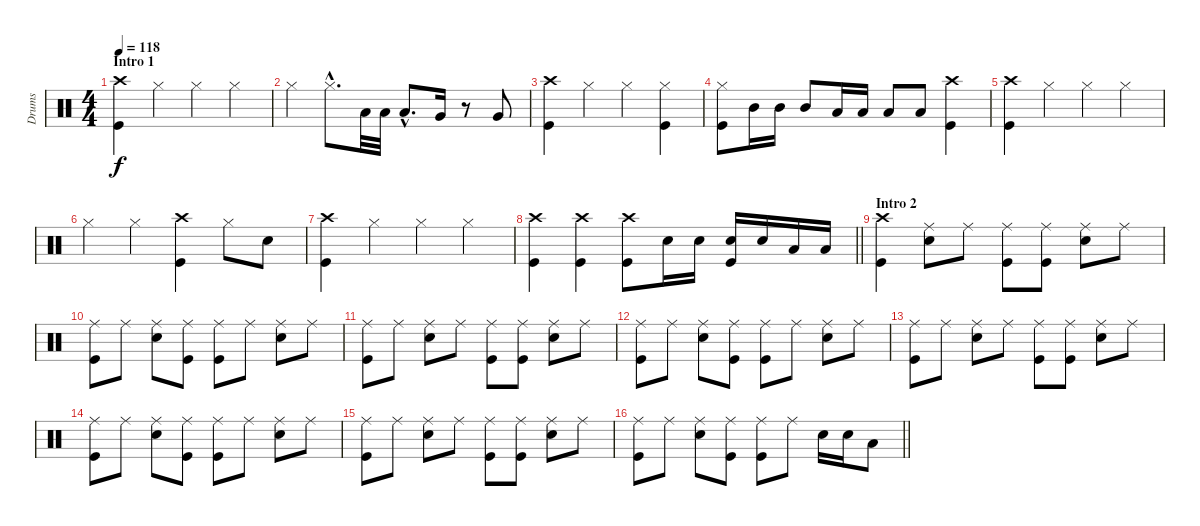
\track ("Drums" "Drums") {instrument percussion}
\staff {score}
\articulation defaults
\ts (4 4)
\section ("" "Intro 1")
\tempo 118
\clef neutral
\ks c
("Crash high (hit)" "Kick (hit)").4{dy f} "Hi-Hat (closed)".4 "Hi-Hat (closed)".4 "Hi-Hat (closed)".4 |
"Hi-Hat (closed)".4 "Hi-Hat (closed)"{hac}.8{d} "Low Tom (hit)".32 "Low Tom (hit)".32 "Low Tom (hit)"{hac}.8{d} "Very Low Tom (hit)".16 r.8 "Very Low Tom (hit)".8 |
("Crash high (hit)" "Kick (hit)").4 "Hi-Hat (closed)".4 "Hi-Hat (closed)".4 ("Hi-Hat (closed)" "Kick (hit)").4 |
("Hi-Hat (closed)" "Kick (hit)").8 "Mid Tom (hit)".16 "Mid Tom (hit)".16 "Mid Tom (hit)".8 "Low Tom (hit)".16 "Low Tom (hit)".16 "Low Tom (hit)".8 "Low Tom (hit)".8 ("Crash high (hit)" "Kick (hit)").4 |
("Crash high (hit)" "Kick (hit)").4 "Hi-Hat (closed)".4 "Hi-Hat (closed)".4 "Hi-Hat (closed)".4 |
"Hi-Hat (closed)".4 "Hi-Hat (closed)".4 ("Crash high (hit)" "Kick (hit)").4 "Hi-Hat (closed)".8 "Electric Snare (hit)".8 |
("Crash high (hit)" "Kick (hit)").4 "Hi-Hat (closed)".4 "Hi-Hat (closed)".4 "Hi-Hat (closed)".4 |
\barLineRight lightlight
("Crash high (hit)" "Kick (hit)").4 ("Crash high (hit)" "Kick (hit)").4 ("Crash high (hit)" "Kick (hit)").8 "Electric Snare (hit)".16 "Electric Snare (hit)".16 ("Electric Snare (hit)" "Kick (hit)").16 "Electric Snare (hit)".16 "Low Tom (hit)".16 "Low Tom (hit)".16 |
\section ("" "Intro 2")
("Crash high (hit)" "Kick (hit)").4 ("Ride (middle)" "Electric Snare (hit)").8 "Ride (middle)".8 ("Ride (middle)" "Kick (hit)").8 ("Ride (middle)" "Kick (hit)").8 ("Ride (middle)" "Electric Snare (hit)").8 "Ride (middle)".8 |
("Ride (middle)" "Kick (hit)").8 "Ride (middle)".8 ("Ride (middle)" "Electric Snare (hit)").8 ("Ride (middle)" "Kick (hit)").8 ("Ride (middle)" "Kick (hit)").8 "Ride (middle)".8 ("Ride (middle)" "Electric Snare (hit)").8 "Ride (middle)".8 |
("Ride (middle)" "Kick (hit)").8 "Ride (middle)".8 ("Ride (middle)" "Electric Snare (hit)").8 "Ride (middle)".8 ("Ride (middle)" "Kick (hit)").8 ("Ride (middle)" "Kick (hit)").8 ("Ride (middle)" "Electric Snare (hit)").8 "Ride (middle)".8 |
("Ride (middle)" "Kick (hit)").8 "Ride (middle)".8 ("Ride (middle)" "Electric Snare (hit)").8 ("Ride (middle)" "Kick (hit)").8 ("Ride (middle)" "Kick (hit)").8 "Ride (middle)".8 ("Ride (middle)" "Electric Snare (hit)").8 "Ride (middle)".8 |
("Ride (middle)" "Kick (hit)").8 "Ride (middle)".8 ("Ride (middle)" "Electric Snare (hit)").8 "Ride (middle)".8 ("Ride (middle)" "Kick (hit)").8 ("Ride (middle)" "Kick (hit)").8 ("Ride (middle)" "Electric Snare (hit)").8 "Ride (middle)".8 |
("Ride (middle)" "Kick (hit)").8 "Ride (middle)".8 ("Ride (middle)" "Electric Snare (hit)").8 ("Ride (middle)" "Kick (hit)").8 ("Ride (middle)" "Kick (hit)").8 "Ride (middle)".8 ("Ride (middle)" "Electric Snare (hit)").8 "Ride (middle)".8 |
("Ride (middle)" "Kick (hit)").8 "Ride (middle)".8 ("Ride (middle)" "Electric Snare (hit)").8 "Ride (middle)".8 ("Ride (middle)" "Kick (hit)").8 ("Ride (middle)" "Kick (hit)").8 ("Ride (middle)" "Electric Snare (hit)").8 "Ride (middle)".8 |
\barLineRight lightlight
("Ride (middle)" "Kick (hit)").8 "Ride (middle)".8 ("Ride (middle)" "Electric Snare (hit)").8 ("Ride (middle)" "Kick (hit)").8 ("Ride (middle)" "Kick (hit)").8 "Ride (middle)".8 "Electric Snare (hit)".16 "Electric Snare (hit)".16 "Low Tom (hit)".8
